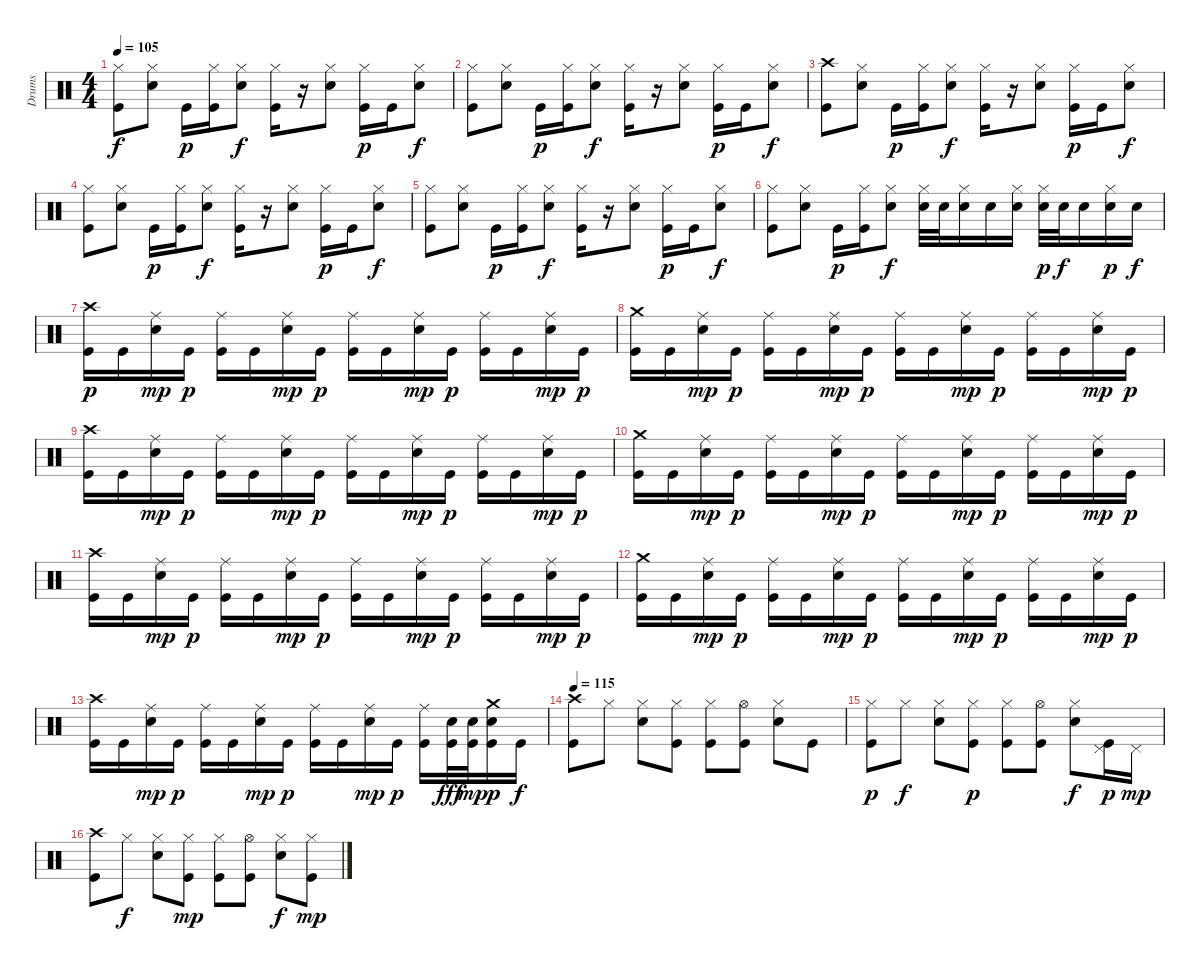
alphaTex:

\track ("Drums" "Drums") {instrument percussion}
\staff {score}
\articulation defaults
\ts (4 4)
\tempo 105
\clef neutral
\ks c
("Hi-Hat (closed)" "Kick (hit)").8{dy f} ("Hi-Hat (closed)" "Snare (hit) 2").8 "Kick (hit)".16{dy p} ("Hi-Hat (closed)" "Kick (hit)").16 ("Hi-Hat (closed)" "Snare (hit) 2").8{dy f} ("Hi-Hat (closed)" "Kick (hit)").16 r.16 ("Hi-Hat (closed)" "Snare (hit) 2").8 ("Hi-Hat (closed)" "Kick (hit)").16{dy p} "Kick (hit)".16 ("Hi-Hat (closed)" "Snare (hit) 2").8{dy f} |
("Hi-Hat (closed)" "Kick (hit)").8 ("Hi-Hat (closed)" "Snare (hit) 2").8 "Kick (hit)".16{dy p} ("Hi-Hat (closed)" "Kick (hit)").16 ("Hi-Hat (closed)" "Snare (hit) 2").8{dy f} ("Hi-Hat (closed)" "Kick (hit)").16 r.16 ("Hi-Hat (closed)" "Snare (hit) 2").8 ("Hi-Hat (closed)" "Kick (hit)").16{dy p} "Kick (hit)".16 ("Hi-Hat (closed)" "Snare (hit) 2").8{dy f} |
("Crash high (hit)" "Kick (hit)").8 ("Hi-Hat (closed)" "Snare (hit) 2").8 "Kick (hit)".16{dy p} ("Hi-Hat (closed)" "Kick (hit)").16 ("Hi-Hat (closed)" "Snare (hit) 2").8{dy f} ("Hi-Hat (closed)" "Kick (hit)").16 r.16 ("Hi-Hat (closed)" "Snare (hit) 2").8 ("Hi-Hat (closed)" "Kick (hit)").16{dy p} "Kick (hit)".16 ("Hi-Hat (closed)" "Snare (hit) 2").8{dy f} |
("Hi-Hat (closed)" "Kick (hit)").8 ("Hi-Hat (closed)" "Snare (hit) 2").8 "Kick (hit)".16{dy p} ("Hi-Hat (closed)" "Kick (hit)").16 ("Hi-Hat (closed)" "Snare (hit) 2").8{dy f} ("Hi-Hat (closed)" "Kick (hit)").16 r.16 ("Hi-Hat (closed)" "Snare (hit) 2").8 ("Hi-Hat (closed)" "Kick (hit)").16{dy p} "Kick (hit)".16 ("Hi-Hat (closed)" "Snare (hit) 2").8{dy f} |
("Hi-Hat (closed)" "Kick (hit)").8 ("Hi-Hat (closed)" "Snare (hit) 2").8 "Kick (hit)".16{dy p} ("Hi-Hat (closed)" "Kick (hit)").16 ("Hi-Hat (closed)" "Snare (hit) 2").8{dy f} ("Hi-Hat (closed)" "Kick (hit)").16 r.16 ("Hi-Hat (closed)" "Snare (hit) 2").8 ("Hi-Hat (closed)" "Kick (hit)").16{dy p} "Kick (hit)".16 ("Hi-Hat (closed)" "Snare (hit) 2").8{dy f} |
("Hi-Hat (closed)" "Kick (hit)").8 ("Hi-Hat (closed)" "Snare (hit) 2").8 "Kick (hit)".16{dy p} ("Hi-Hat (closed)" "Kick (hit)").16 ("Hi-Hat (closed)" "Snare (hit) 2").8{dy f} ("Hi-Hat (closed)" "Snare (hit) 2").32 "Snare (hit) 2".32 ("Hi-Hat (closed)" "Snare (hit) 2").16 "Snare (hit) 2".16 ("Hi-Hat (closed)" "Snare (hit) 2").16 ("Hi-Hat (closed)" "Snare (hit) 2").32{dy p} "Snare (hit) 2".32{dy f} "Snare (hit) 2".16 ("Hi-Hat (closed)" "Snare (hit) 2").16{dy p} "Snare (hit) 2".16{dy f} |
("Crash high (hit)" "Kick (hit)").16{dy p} "Kick (hit)".16 ("Ride (middle)" "Snare (hit) 2").16{dy mp} "Kick (hit)".16{dy p} ("Ride (middle)" "Kick (hit)").16 "Kick (hit)".16 ("Ride (middle)" "Snare (hit) 2").16{dy mp} "Kick (hit)".16{dy p} ("Ride (middle)" "Kick (hit)").16 "Kick (hit)".16 ("Ride (middle)" "Snare (hit) 2").16{dy mp} "Kick (hit)".16{dy p} ("Ride (middle)" "Kick (hit)").16 "Kick (hit)".16 ("Ride (middle)" "Snare (hit) 2").16{dy mp} "Kick (hit)".16{dy p} |
("Crash medium (hit)" "Kick (hit)").16 "Kick (hit)".16 ("Ride (middle)" "Snare (hit) 2").16{dy mp} "Kick (hit)".16{dy p} ("Ride (middle)" "Kick (hit)").16 "Kick (hit)".16 ("Ride (middle)" "Snare (hit) 2").16{dy mp} "Kick (hit)".16{dy p} ("Ride (middle)" "Kick (hit)").16 "Kick (hit)".16 ("Ride (middle)" "Snare (hit) 2").16{dy mp} "Kick (hit)".16{dy p} ("Ride (middle)" "Kick (hit)").16 "Kick (hit)".16 ("Ride (middle)" "Snare (hit) 2").16{dy mp} "Kick (hit)".16{dy p} |
("Crash high (hit)" "Kick (hit)").16 "Kick (hit)".16 ("Ride (middle)" "Snare (hit) 2").16{dy mp} "Kick (hit)".16{dy p} ("Ride (middle)" "Kick (hit)").16 "Kick (hit)".16 ("Ride (middle)" "Snare (hit) 2").16{dy mp} "Kick (hit)".16{dy p} ("Ride (middle)" "Kick (hit)").16 "Kick (hit)".16 ("Ride (middle)" "Snare (hit) 2").16{dy mp} "Kick (hit)".16{dy p} ("Ride (middle)" "Kick (hit)").16 "Kick (hit)".16 ("Ride (middle)" "Snare (hit) 2").16{dy mp} "Kick (hit)".16{dy p} |
("Crash medium (hit)" "Kick (hit)").16 "Kick (hit)".16 ("Ride (middle)" "Snare (hit) 2").16{dy mp} "Kick (hit)".16{dy p} ("Ride (middle)" "Kick (hit)").16 "Kick (hit)".16 ("Ride (middle)" "Snare (hit) 2").16{dy mp} "Kick (hit)".16{dy p} ("Ride (middle)" "Kick (hit)").16 "Kick (hit)".16 ("Ride (middle)" "Snare (hit) 2").16{dy mp} "Kick (hit)".16{dy p} ("Ride (middle)" "Kick (hit)").16 "Kick (hit)".16 ("Ride (middle)" "Snare (hit) 2").16{dy mp} "Kick (hit)".16{dy p} |
("Crash high (hit)" "Kick (hit)").16 "Kick (hit)".16 ("Ride (middle)" "Snare (hit) 2").16{dy mp} "Kick (hit)".16{dy p} ("Ride (middle)" "Kick (hit)").16 "Kick (hit)".16 ("Ride (middle)" "Snare (hit) 2").16{dy mp} "Kick (hit)".16{dy p} ("Ride (middle)" "Kick (hit)").16 "Kick (hit)".16 ("Ride (middle)" "Snare (hit) 2").16{dy mp} "Kick (hit)".16{dy p} ("Ride (middle)" "Kick (hit)").16 "Kick (hit)".16 ("Ride (middle)" "Snare (hit) 2").16{dy mp} "Kick (hit)".16{dy p} |
("Crash medium (hit)" "Kick (hit)").16 "Kick (hit)".16 ("Ride (middle)" "Snare (hit) 2").16{dy mp} "Kick (hit)".16{dy p} ("Ride (middle)" "Kick (hit)").16 "Kick (hit)".16 ("Ride (middle)" "Snare (hit) 2").16{dy mp} "Kick (hit)".16{dy p} ("Ride (middle)" "Kick (hit)").16 "Kick (hit)".16 ("Ride (middle)" "Snare (hit) 2").16{dy mp} "Kick (hit)".16{dy p} ("Ride (middle)" "Kick (hit)").16 "Kick (hit)".16 ("Ride (middle)" "Snare (hit) 2").16{dy mp} "Kick (hit)".16{dy p} |
("Crash high (hit)" "Kick (hit)").16 "Kick (hit)".16 ("Ride (middle)" "Snare (hit) 2").16{dy mp} "Kick (hit)".16{dy p} ("Ride (middle)" "Kick (hit)").16 "Kick (hit)".16 ("Ride (middle)" "Snare (hit) 2").16{dy mp} "Kick (hit)".16{dy p} ("Ride (middle)" "Kick (hit)").16 "Kick (hit)".16 ("Ride (middle)" "Snare (hit) 2").16{dy mp} "Kick (hit)".16{dy p} ("Ride (middle)" "Kick (hit)").16 ("Snare (hit) 2" "Kick (hit)").32{dy fff} ("Snare (hit) 2" "Kick (hit)").32{dy mp} ("Crash medium (hit)" "Snare (hit) 2" "Kick (hit)").16{dy p} "Kick (hit)".16{dy f} |
\tempo 115
("Crash high (hit)" "Kick (hit)").8 "Hi-Hat (closed)".8 ("Hi-Hat (closed)" "Snare (hit) 2").8 ("Hi-Hat (closed)" "Kick (hit)").8 ("Hi-Hat (closed)" "Kick (hit)").8 ("Hi-Hat (open)" "Kick (hit)").8 ("Hi-Hat (closed)" "Snare (hit) 2").8 "Kick (hit)".8 |
("Hi-Hat (closed)" "Kick (hit)").8{dy p} "Hi-Hat (closed)".8{dy f} ("Hi-Hat (closed)" "Snare (hit) 2").8 ("Hi-Hat (closed)" "Kick (hit)").8{dy p} ("Hi-Hat (closed)" "Kick (hit)").8 ("Hi-Hat (open)" "Kick (hit)").8 ("Hi-Hat (closed)" "Snare (hit) 2").8{dy f} ("Pedal Hi-Hat (hit)" "Kick (hit)").16{dy p} "Pedal Hi-Hat (hit)".16{dy mp} |
("Crash high (hit)" "Kick (hit)").8 "Hi-Hat (closed)".8{dy f} ("Hi-Hat (closed)" "Snare (hit) 2").8 ("Hi-Hat (closed)" "Kick (hit)").8{dy mp} ("Hi-Hat (closed)" "Kick (hit)").8 ("Hi-Hat (open)" "Kick (hit)").8 ("Hi-Hat (closed)" "Snare (hit) 2").8{dy f} ("Hi-Hat (closed)" "Kick (hit)").8{dy mp}
